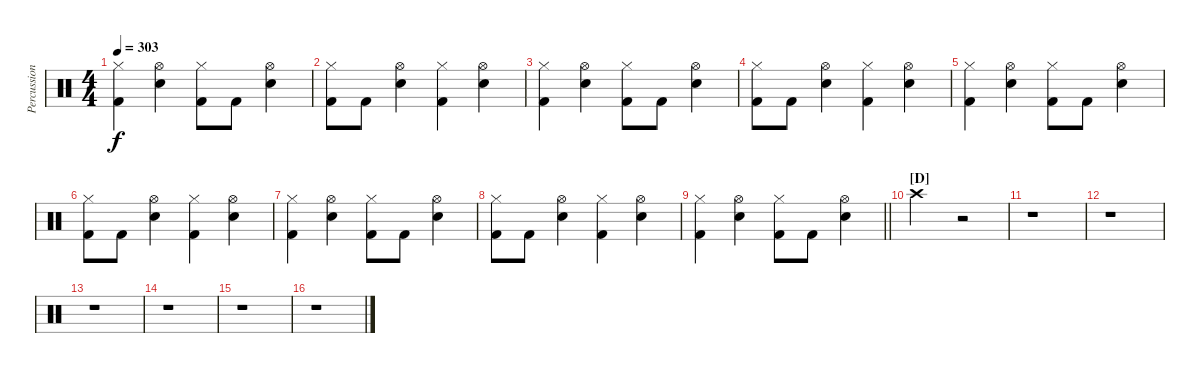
\track ("Percussions" "Percussion") {instrument percussion}
\staff {score}
\articulation defaults
\ts (4 4)
\tempo 303
\clef neutral
\ks c
("Hi-Hat (closed)" "Kick (hit) 2").4{dy f} ("Hi-Hat (open)" "Electric Snare (hit)").4 ("Hi-Hat (closed)" "Kick (hit) 2").8 "Kick (hit) 2".8 ("Hi-Hat (open)" "Electric Snare (hit)").4 |
("Hi-Hat (closed)" "Kick (hit) 2").8 "Kick (hit) 2".8 ("Hi-Hat (open)" "Electric Snare (hit)").4 ("Hi-Hat (closed)" "Kick (hit) 2").4 ("Hi-Hat (open)" "Electric Snare (hit)").4 |
("Hi-Hat (closed)" "Kick (hit) 2").4 ("Hi-Hat (open)" "Electric Snare (hit)").4 ("Hi-Hat (closed)" "Kick (hit) 2").8 "Kick (hit) 2".8 ("Hi-Hat (open)" "Electric Snare (hit)").4 |
("Hi-Hat (closed)" "Kick (hit) 2").8 "Kick (hit) 2".8 ("Hi-Hat (open)" "Electric Snare (hit)").4 ("Hi-Hat (closed)" "Kick (hit) 2").4 ("Hi-Hat (open)" "Electric Snare (hit)").4 |
("Hi-Hat (closed)" "Kick (hit) 2").4 ("Hi-Hat (open)" "Electric Snare (hit)").4 ("Hi-Hat (closed)" "Kick (hit) 2").8 "Kick (hit) 2".8 ("Hi-Hat (open)" "Electric Snare (hit)").4 |
("Hi-Hat (closed)" "Kick (hit) 2").8 "Kick (hit) 2".8 ("Hi-Hat (open)" "Electric Snare (hit)").4 ("Hi-Hat (closed)" "Kick (hit) 2").4 ("Hi-Hat (open)" "Electric Snare (hit)").4 |
("Hi-Hat (closed)" "Kick (hit) 2").4 ("Hi-Hat (open)" "Electric Snare (hit)").4 ("Hi-Hat (closed)" "Kick (hit) 2").8 "Kick (hit) 2".8 ("Hi-Hat (open)" "Electric Snare (hit)").4 |
("Hi-Hat (closed)" "Kick (hit) 2").8 "Kick (hit) 2".8 ("Hi-Hat (open)" "Electric Snare (hit)").4 ("Hi-Hat (closed)" "Kick (hit) 2").4 ("Hi-Hat (open)" "Electric Snare (hit)").4 |
\barLineRight lightlight
("Hi-Hat (closed)" "Kick (hit) 2").4 ("Hi-Hat (open)" "Electric Snare (hit)").4 ("Hi-Hat (closed)" "Kick (hit) 2").8 "Kick (hit) 2".8 ("Hi-Hat (open)" "Electric Snare (hit)").4 |
\section ("" "[D]")
"Crash high (hit)".2 r.2 |
r.1 |
r.1 |
r.1 |
r.1 |
r.1 |
r.1
